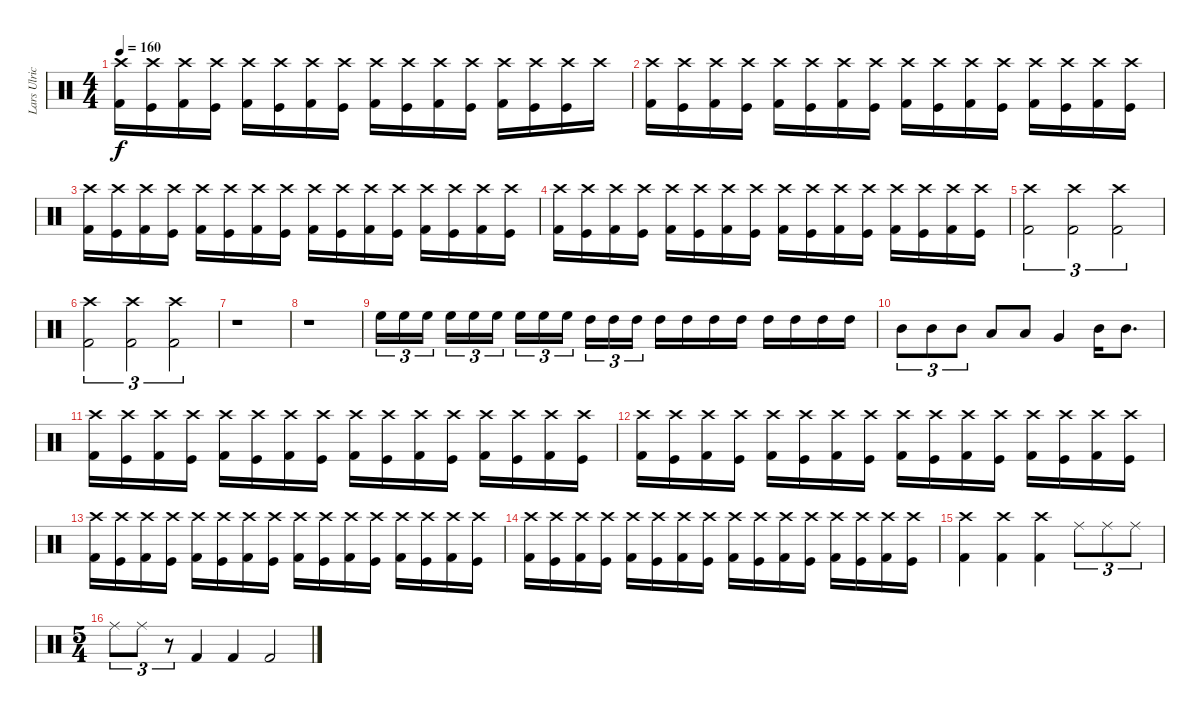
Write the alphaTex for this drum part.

\track ("Lars Ulrich" "Lars Ulric") {instrument percussion}
\staff {score}
\articulation defaults
\ts (4 4)
\tempo 160
\clef neutral
\ks c
("Crash high (hit)" "Kick (hit) 2").16{dy f volume 0} ("Crash high (hit)" "Kick (hit)").16 ("Crash high (hit)" "Kick (hit) 2").16{volume 3} ("Crash high (hit)" "Kick (hit)").16 ("Crash high (hit)" "Kick (hit) 2").16 ("Crash high (hit)" "Kick (hit)").16 ("Crash high (hit)" "Kick (hit) 2").16 ("Crash high (hit)" "Kick (hit)").16 ("Crash high (hit)" "Kick (hit) 2").16 ("Crash high (hit)" "Kick (hit)").16 ("Crash high (hit)" "Kick (hit) 2").16 ("Crash high (hit)" "Kick (hit)").16 ("Crash high (hit)" "Kick (hit) 2").16 ("Crash high (hit)" "Kick (hit)").16 ("Crash high (hit)" "Kick (hit)").16 "Crash high (hit)".16 |
("Crash high (hit)" "Kick (hit) 2").16{volume 6} ("Crash high (hit)" "Kick (hit)").16 ("Crash high (hit)" "Kick (hit) 2").16 ("Crash high (hit)" "Kick (hit)").16 ("Crash high (hit)" "Kick (hit) 2").16 ("Crash high (hit)" "Kick (hit)").16 ("Crash high (hit)" "Kick (hit) 2").16 ("Crash high (hit)" "Kick (hit)").16 ("Crash high (hit)" "Kick (hit) 2").16 ("Crash high (hit)" "Kick (hit)").16 ("Crash high (hit)" "Kick (hit) 2").16 ("Crash high (hit)" "Kick (hit)").16 ("Crash high (hit)" "Kick (hit) 2").16 ("Crash high (hit)" "Kick (hit)").16 ("Crash high (hit)" "Kick (hit) 2").16 ("Crash high (hit)" "Kick (hit)").16 |
("Crash high (hit)" "Kick (hit) 2").16{volume 9} ("Crash high (hit)" "Kick (hit)").16 ("Crash high (hit)" "Kick (hit) 2").16 ("Crash high (hit)" "Kick (hit)").16 ("Crash high (hit)" "Kick (hit) 2").16 ("Crash high (hit)" "Kick (hit)").16 ("Crash high (hit)" "Kick (hit) 2").16 ("Crash high (hit)" "Kick (hit)").16 ("Crash high (hit)" "Kick (hit) 2").16 ("Crash high (hit)" "Kick (hit)").16 ("Crash high (hit)" "Kick (hit) 2").16 ("Crash high (hit)" "Kick (hit)").16 ("Crash high (hit)" "Kick (hit) 2").16 ("Crash high (hit)" "Kick (hit)").16 ("Crash high (hit)" "Kick (hit) 2").16 ("Crash high (hit)" "Kick (hit)").16 |
("Crash high (hit)" "Kick (hit) 2").16{volume 12} ("Crash high (hit)" "Kick (hit)").16 ("Crash high (hit)" "Kick (hit) 2").16 ("Crash high (hit)" "Kick (hit)").16 ("Crash high (hit)" "Kick (hit) 2").16 ("Crash high (hit)" "Kick (hit)").16 ("Crash high (hit)" "Kick (hit) 2").16 ("Crash high (hit)" "Kick (hit)").16 ("Crash high (hit)" "Kick (hit) 2").16 ("Crash high (hit)" "Kick (hit)").16 ("Crash high (hit)" "Kick (hit) 2").16 ("Crash high (hit)" "Kick (hit)").16 ("Crash high (hit)" "Kick (hit) 2").16 ("Crash high (hit)" "Kick (hit)").16 ("Crash high (hit)" "Kick (hit) 2").16 ("Crash high (hit)" "Kick (hit)").16 |
("Crash high (hit)" "Kick (hit) 2").2{tu (3 2)} ("Crash high (hit)" "Kick (hit) 2").2{tu (3 2)} ("Crash high (hit)" "Kick (hit) 2").2{tu (3 2)} |
("Crash high (hit)" "Kick (hit) 2").2{tu (3 2)} ("Crash high (hit)" "Kick (hit) 2").2{tu (3 2)} ("Crash high (hit)" "Kick (hit) 2").2{tu (3 2)} |
r.1 |
r.1 |
"High Floor Tom (hit)".16{tu (3 2)} "High Floor Tom (hit)".16{tu (3 2)} "High Floor Tom (hit)".16{tu (3 2)} "High Floor Tom (hit)".16{tu (3 2)} "High Floor Tom (hit)".16{tu (3 2)} "High Floor Tom (hit)".16{tu (3 2)} "High Floor Tom (hit)".16{tu (3 2)} "High Floor Tom (hit)".16{tu (3 2)} "High Floor Tom (hit)".16{tu (3 2)} "High Tom (hit)".16{tu (3 2)} "High Tom (hit)".16{tu (3 2)} "High Tom (hit)".16{tu (3 2)} "High Tom (hit)".16 "High Tom (hit)".16 "High Tom (hit)".16 "High Tom (hit)".16 "High Tom (hit)".16 "High Tom (hit)".16 "High Tom (hit)".16 "High Tom (hit)".16 |
"Mid Tom (hit)".8{tu (3 2)} "Mid Tom (hit)".8{tu (3 2)} "Mid Tom (hit)".8{tu (3 2)} "Low Tom (hit)".8 "Low Tom (hit)".8 "Very Low Tom (hit)".4 "Mid Tom (hit)".16 "Mid Tom (hit)".8{d} |
("Crash high (hit)" "Kick (hit) 2").16 ("Crash high (hit)" "Kick (hit)").16 ("Crash high (hit)" "Kick (hit) 2").16 ("Crash high (hit)" "Kick (hit)").16 ("Crash high (hit)" "Kick (hit) 2").16 ("Crash high (hit)" "Kick (hit)").16 ("Crash high (hit)" "Kick (hit) 2").16 ("Crash high (hit)" "Kick (hit)").16 ("Crash high (hit)" "Kick (hit) 2").16 ("Crash high (hit)" "Kick (hit)").16 ("Crash high (hit)" "Kick (hit) 2").16 ("Crash high (hit)" "Kick (hit)").16 ("Crash high (hit)" "Kick (hit) 2").16 ("Crash high (hit)" "Kick (hit)").16 ("Crash high (hit)" "Kick (hit) 2").16 ("Crash high (hit)" "Kick (hit)").16 |
("Crash high (hit)" "Kick (hit) 2").16 ("Crash high (hit)" "Kick (hit)").16 ("Crash high (hit)" "Kick (hit) 2").16 ("Crash high (hit)" "Kick (hit)").16 ("Crash high (hit)" "Kick (hit) 2").16 ("Crash high (hit)" "Kick (hit)").16 ("Crash high (hit)" "Kick (hit) 2").16 ("Crash high (hit)" "Kick (hit)").16 ("Crash high (hit)" "Kick (hit) 2").16 ("Crash high (hit)" "Kick (hit)").16 ("Crash high (hit)" "Kick (hit) 2").16 ("Crash high (hit)" "Kick (hit)").16 ("Crash high (hit)" "Kick (hit) 2").16 ("Crash high (hit)" "Kick (hit)").16 ("Crash high (hit)" "Kick (hit) 2").16 ("Crash high (hit)" "Kick (hit)").16 |
("Crash high (hit)" "Kick (hit) 2").16 ("Crash high (hit)" "Kick (hit)").16 ("Crash high (hit)" "Kick (hit) 2").16 ("Crash high (hit)" "Kick (hit)").16 ("Crash high (hit)" "Kick (hit) 2").16 ("Crash high (hit)" "Kick (hit)").16 ("Crash high (hit)" "Kick (hit) 2").16 ("Crash high (hit)" "Kick (hit)").16 ("Crash high (hit)" "Kick (hit) 2").16 ("Crash high (hit)" "Kick (hit)").16 ("Crash high (hit)" "Kick (hit) 2").16 ("Crash high (hit)" "Kick (hit)").16 ("Crash high (hit)" "Kick (hit) 2").16 ("Crash high (hit)" "Kick (hit)").16 ("Crash high (hit)" "Kick (hit) 2").16 ("Crash high (hit)" "Kick (hit)").16 |
("Crash high (hit)" "Kick (hit) 2").16 ("Crash high (hit)" "Kick (hit)").16 ("Crash high (hit)" "Kick (hit) 2").16 ("Crash high (hit)" "Kick (hit)").16 ("Crash high (hit)" "Kick (hit) 2").16 ("Crash high (hit)" "Kick (hit)").16 ("Crash high (hit)" "Kick (hit) 2").16 ("Crash high (hit)" "Kick (hit)").16 ("Crash high (hit)" "Kick (hit) 2").16 ("Crash high (hit)" "Kick (hit)").16 ("Crash high (hit)" "Kick (hit) 2").16 ("Crash high (hit)" "Kick (hit)").16 ("Crash high (hit)" "Kick (hit) 2").16 ("Crash high (hit)" "Kick (hit)").16 ("Crash high (hit)" "Kick (hit) 2").16 ("Crash high (hit)" "Kick (hit)").16 |
("Crash high (hit)" "Kick (hit) 2").4 ("Crash high (hit)" "Kick (hit) 2").4 ("Crash high (hit)" "Kick (hit) 2").4 "Ride (middle)".8{tu (3 2)} "Ride (middle)".8{tu (3 2)} "Ride (middle)".8{tu (3 2)} |
\ts (5 4)
"Ride (middle)".8{tu (3 2)} "Ride (middle)".8{tu (3 2)} r.8{tu (3 2)} "Kick (hit) 2".4 "Kick (hit) 2".4 "Kick (hit) 2".2
